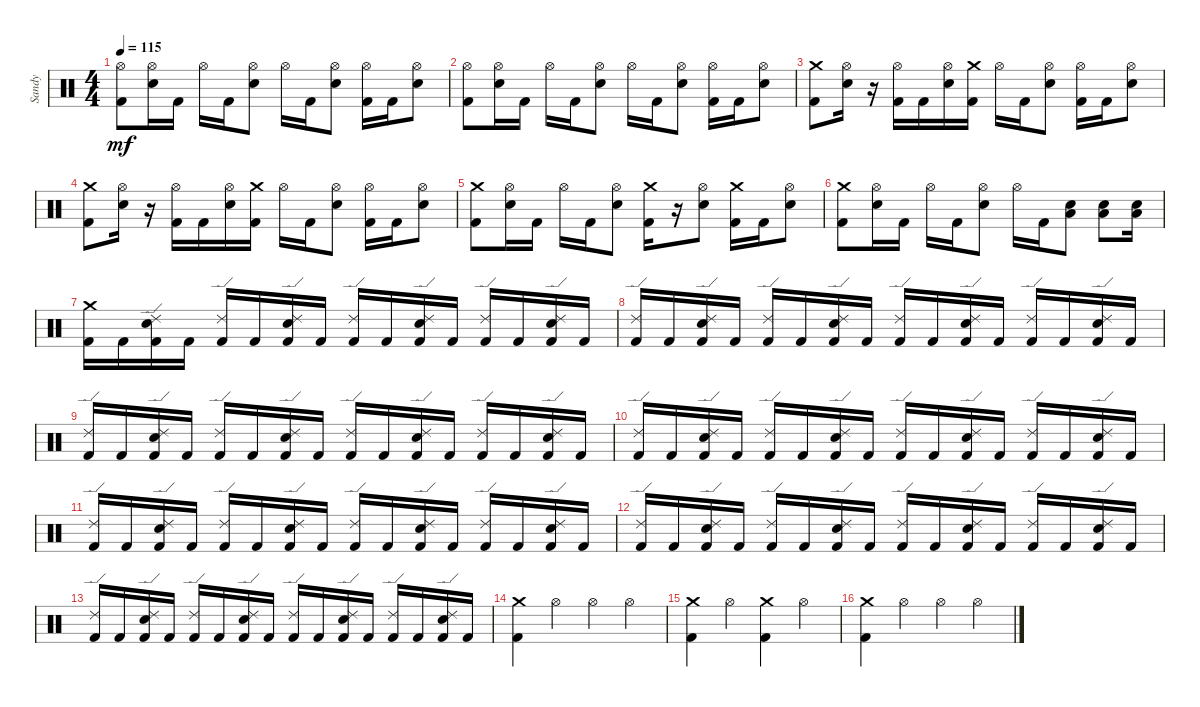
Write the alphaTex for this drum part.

\track ("Sandy" "Sandy") {instrument percussion}
\staff {score}
\articulation defaults
\ts (4 4)
\tempo 115
\clef neutral
\ks c
("Hi-Hat (open)" "Kick (hit) 2").8{dy mf} ("Hi-Hat (open)" "Snare (hit) 2").16 "Kick (hit) 2".16 "Hi-Hat (open)".16 "Kick (hit) 2".16 ("Hi-Hat (open)" "Snare (hit) 2").8 "Hi-Hat (open)".16 "Kick (hit) 2".16 ("Hi-Hat (open)" "Snare (hit) 2").8 ("Hi-Hat (open)" "Kick (hit) 2").16 "Kick (hit) 2".16 ("Hi-Hat (open)" "Snare (hit) 2").8 |
("Hi-Hat (open)" "Kick (hit) 2").8 ("Hi-Hat (open)" "Snare (hit) 2").16 "Kick (hit) 2".16 "Hi-Hat (open)".16 "Kick (hit) 2".16 ("Hi-Hat (open)" "Snare (hit) 2").8 "Hi-Hat (open)".16 "Kick (hit) 2".16 ("Hi-Hat (open)" "Snare (hit) 2").8 ("Hi-Hat (open)" "Kick (hit) 2").16 "Kick (hit) 2".16 ("Hi-Hat (open)" "Snare (hit) 2").8 |
("Crash medium (hit)" "Kick (hit) 2").8 ("Hi-Hat (open)" "Snare (hit) 2").16 r.16 ("Hi-Hat (open)" "Kick (hit) 2").16 "Kick (hit) 2".16 ("Hi-Hat (open)" "Snare (hit) 2").16 ("Crash medium (hit)" "Kick (hit) 2").16 "Hi-Hat (open)".16 "Kick (hit) 2".16 ("Hi-Hat (open)" "Snare (hit) 2").8 ("Hi-Hat (open)" "Kick (hit) 2").16 "Kick (hit) 2".16 ("Hi-Hat (open)" "Snare (hit) 2").8 |
("Crash medium (hit)" "Kick (hit) 2").8 ("Hi-Hat (open)" "Snare (hit) 2").16 r.16 ("Hi-Hat (open)" "Kick (hit) 2").16 "Kick (hit) 2".16 ("Hi-Hat (open)" "Snare (hit) 2").16 ("Crash medium (hit)" "Kick (hit) 2").16 "Hi-Hat (open)".16 "Kick (hit) 2".16 ("Hi-Hat (open)" "Snare (hit) 2").8 ("Hi-Hat (open)" "Kick (hit) 2").16 "Kick (hit) 2".16 ("Hi-Hat (open)" "Snare (hit) 2").8 |
("Crash medium (hit)" "Kick (hit) 2").8 ("Hi-Hat (open)" "Snare (hit) 2").16 "Kick (hit) 2".16 "Hi-Hat (open)".16 "Kick (hit) 2".16 ("Hi-Hat (open)" "Snare (hit) 2").8 ("Crash medium (hit)" "Kick (hit) 2").16 r.16 ("Hi-Hat (open)" "Snare (hit) 2").8 ("Crash medium (hit)" "Kick (hit) 2").16 "Kick (hit) 2".16 ("Hi-Hat (open)" "Snare (hit) 2").8 |
("Crash medium (hit)" "Kick (hit) 2").8 ("Hi-Hat (open)" "Snare (hit) 2").16 "Kick (hit) 2".16 "Hi-Hat (open)".16 "Kick (hit) 2".16 ("Hi-Hat (open)" "Snare (hit) 2").8 "Hi-Hat (open)".16 "Kick (hit) 2".16 ("Electric Snare (hit)" "Low Floor Tom (hit)").8 ("Electric Snare (hit)" "Low Floor Tom (hit)").8 ("Electric Snare (hit)" "Low Floor Tom (hit)").16 |
("Crash medium (hit)" "Kick (hit) 2").16 "Kick (hit) 2".16 ("Ride (edge) 2" "Snare (hit) 2" "Kick (hit) 2").16 "Kick (hit) 2".16 ("Ride (edge) 2" "Kick (hit) 2").16 "Kick (hit) 2".16 ("Ride (edge) 2" "Snare (hit) 2" "Kick (hit) 2").16 "Kick (hit) 2".16 ("Ride (edge) 2" "Kick (hit) 2").16 "Kick (hit) 2".16 ("Ride (edge) 2" "Snare (hit) 2" "Kick (hit) 2").16 "Kick (hit) 2".16 ("Ride (edge) 2" "Kick (hit) 2").16 "Kick (hit) 2".16 ("Ride (edge) 2" "Snare (hit) 2" "Kick (hit) 2").16 "Kick (hit) 2".16 |
("Ride (edge) 2" "Kick (hit) 2").16 "Kick (hit) 2".16 ("Ride (edge) 2" "Snare (hit) 2" "Kick (hit) 2").16 "Kick (hit) 2".16 ("Ride (edge) 2" "Kick (hit) 2").16 "Kick (hit) 2".16 ("Ride (edge) 2" "Snare (hit) 2" "Kick (hit) 2").16 "Kick (hit) 2".16 ("Ride (edge) 2" "Kick (hit) 2").16 "Kick (hit) 2".16 ("Ride (edge) 2" "Snare (hit) 2" "Kick (hit) 2").16 "Kick (hit) 2".16 ("Ride (edge) 2" "Kick (hit) 2").16 "Kick (hit) 2".16 ("Ride (edge) 2" "Snare (hit) 2" "Kick (hit) 2").16 "Kick (hit) 2".16 |
("Ride (edge) 2" "Kick (hit) 2").16 "Kick (hit) 2".16 ("Ride (edge) 2" "Snare (hit) 2" "Kick (hit) 2").16 "Kick (hit) 2".16 ("Ride (edge) 2" "Kick (hit) 2").16 "Kick (hit) 2".16 ("Ride (edge) 2" "Snare (hit) 2" "Kick (hit) 2").16 "Kick (hit) 2".16 ("Ride (edge) 2" "Kick (hit) 2").16 "Kick (hit) 2".16 ("Ride (edge) 2" "Snare (hit) 2" "Kick (hit) 2").16 "Kick (hit) 2".16 ("Ride (edge) 2" "Kick (hit) 2").16 "Kick (hit) 2".16 ("Ride (edge) 2" "Snare (hit) 2" "Kick (hit) 2").16 "Kick (hit) 2".16 |
("Ride (edge) 2" "Kick (hit) 2").16 "Kick (hit) 2".16 ("Ride (edge) 2" "Snare (hit) 2" "Kick (hit) 2").16 "Kick (hit) 2".16 ("Ride (edge) 2" "Kick (hit) 2").16 "Kick (hit) 2".16 ("Ride (edge) 2" "Snare (hit) 2" "Kick (hit) 2").16 "Kick (hit) 2".16 ("Ride (edge) 2" "Kick (hit) 2").16 "Kick (hit) 2".16 ("Ride (edge) 2" "Snare (hit) 2" "Kick (hit) 2").16 "Kick (hit) 2".16 ("Ride (edge) 2" "Kick (hit) 2").16 "Kick (hit) 2".16 ("Ride (edge) 2" "Snare (hit) 2" "Kick (hit) 2").16 "Kick (hit) 2".16 |
("Ride (edge) 2" "Kick (hit) 2").16 "Kick (hit) 2".16 ("Ride (edge) 2" "Snare (hit) 2" "Kick (hit) 2").16 "Kick (hit) 2".16 ("Ride (edge) 2" "Kick (hit) 2").16 "Kick (hit) 2".16 ("Ride (edge) 2" "Snare (hit) 2" "Kick (hit) 2").16 "Kick (hit) 2".16 ("Ride (edge) 2" "Kick (hit) 2").16 "Kick (hit) 2".16 ("Ride (edge) 2" "Snare (hit) 2" "Kick (hit) 2").16 "Kick (hit) 2".16 ("Ride (edge) 2" "Kick (hit) 2").16 "Kick (hit) 2".16 ("Ride (edge) 2" "Snare (hit) 2" "Kick (hit) 2").16 "Kick (hit) 2".16 |
("Ride (edge) 2" "Kick (hit) 2").16 "Kick (hit) 2".16 ("Ride (edge) 2" "Snare (hit) 2" "Kick (hit) 2").16 "Kick (hit) 2".16 ("Ride (edge) 2" "Kick (hit) 2").16 "Kick (hit) 2".16 ("Ride (edge) 2" "Snare (hit) 2" "Kick (hit) 2").16 "Kick (hit) 2".16 ("Ride (edge) 2" "Kick (hit) 2").16 "Kick (hit) 2".16 ("Ride (edge) 2" "Snare (hit) 2" "Kick (hit) 2").16 "Kick (hit) 2".16 ("Ride (edge) 2" "Kick (hit) 2").16 "Kick (hit) 2".16 ("Ride (edge) 2" "Snare (hit) 2" "Kick (hit) 2").16 "Kick (hit) 2".16 |
("Ride (edge) 2" "Kick (hit) 2").16 "Kick (hit) 2".16 ("Ride (edge) 2" "Snare (hit) 2" "Kick (hit) 2").16 "Kick (hit) 2".16 ("Ride (edge) 2" "Kick (hit) 2").16 "Kick (hit) 2".16 ("Ride (edge) 2" "Snare (hit) 2" "Kick (hit) 2").16 "Kick (hit) 2".16 ("Ride (edge) 2" "Kick (hit) 2").16 "Kick (hit) 2".16 ("Ride (edge) 2" "Snare (hit) 2" "Kick (hit) 2").16 "Kick (hit) 2".16 ("Ride (edge) 2" "Kick (hit) 2").16 "Kick (hit) 2".16 ("Ride (edge) 2" "Snare (hit) 2" "Kick (hit) 2").16 "Kick (hit) 2".16 |
("Crash medium (hit)" "Kick (hit) 2").4 "Hi-Hat (open)".4 "Hi-Hat (open)".4 "Hi-Hat (open)".4 |
("Crash medium (hit)" "Kick (hit) 2").4 "Hi-Hat (open)".4 ("Crash medium (hit)" "Kick (hit) 2").4 "Hi-Hat (open)".4 |
("Crash medium (hit)" "Kick (hit) 2").4 "Hi-Hat (open)".4 "Hi-Hat (open)".4 "Hi-Hat (open)".4
